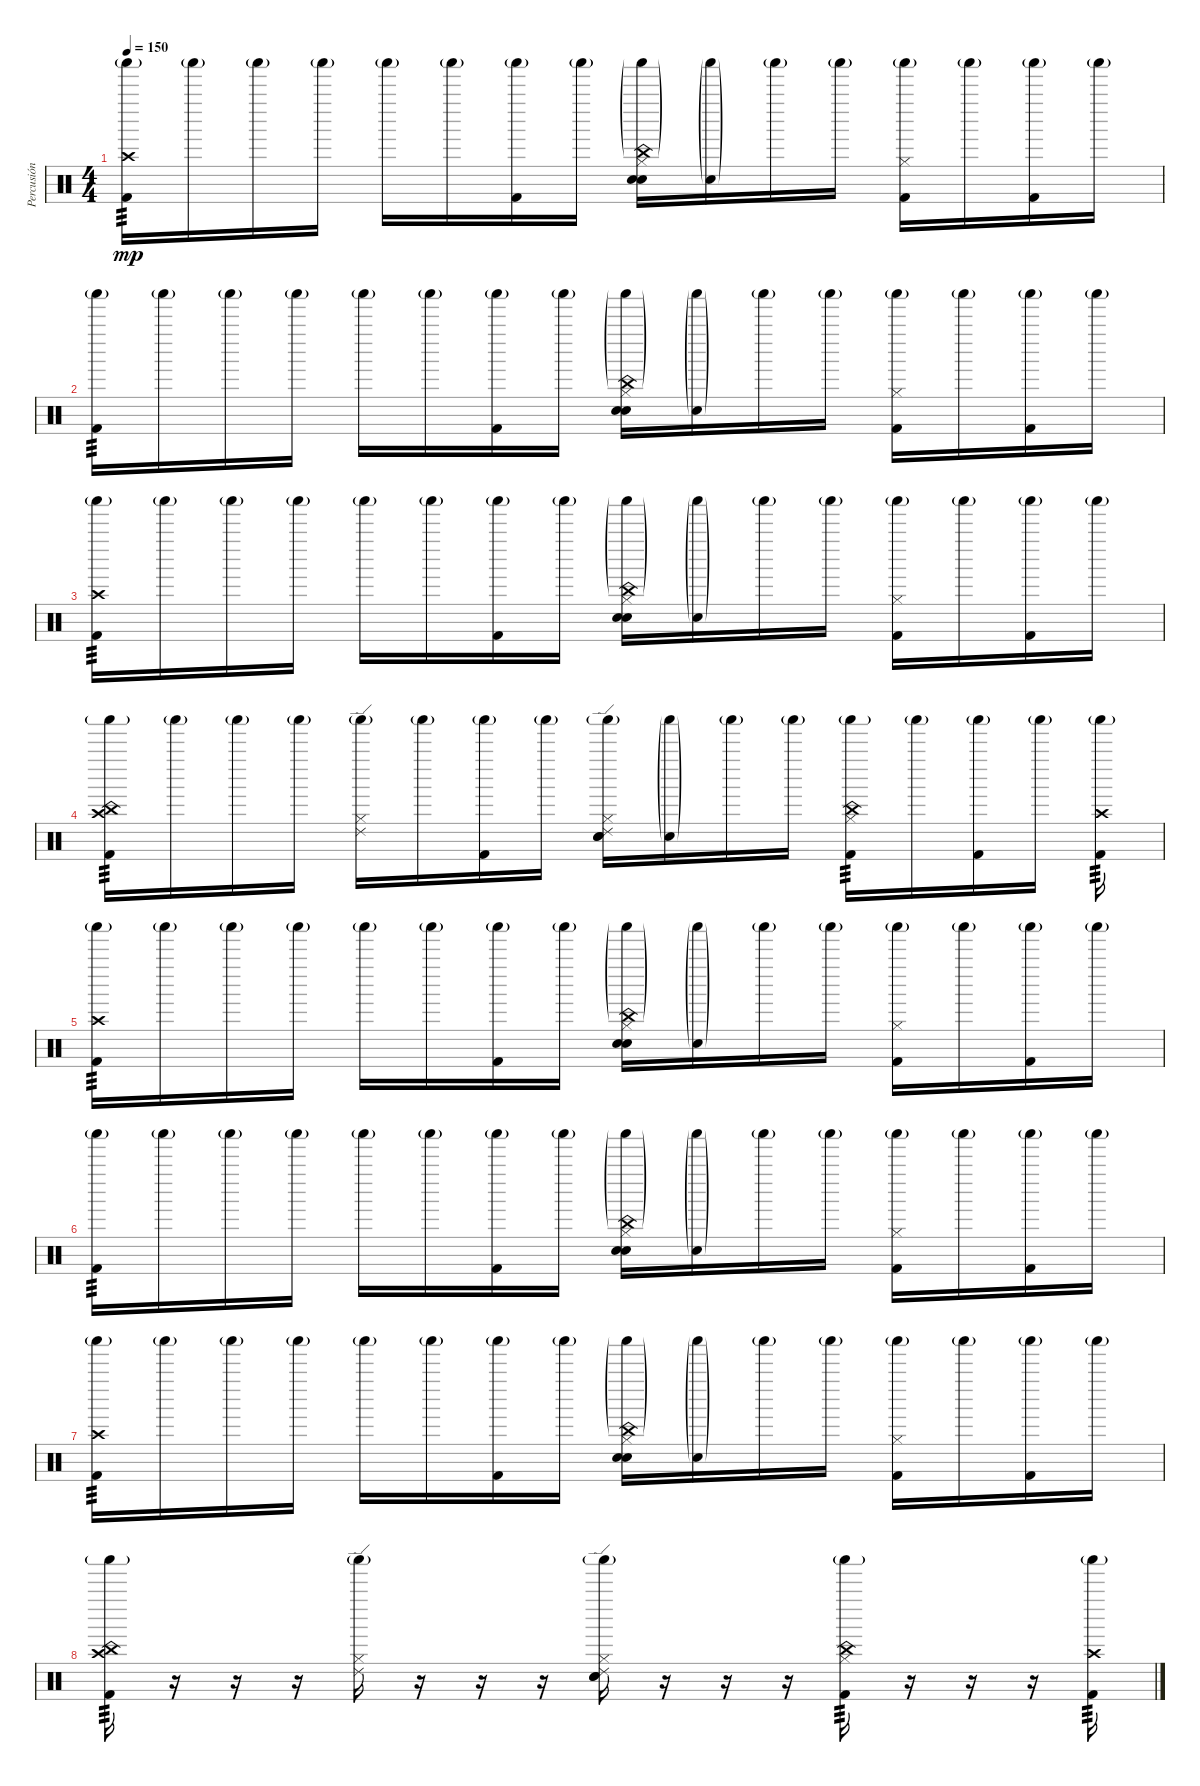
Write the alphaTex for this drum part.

\track ("Percusión" "Percusión") {instrument percussion}
\staff {score}
\articulation defaults
\ts (4 4)
\tempo 150
\clef neutral
\ks c
("Crash high (hit)" "Shaker (hit)"{g} "Kick (hit) 2").16{tp 3 dy mp} "Shaker (hit)"{g}.16 "Shaker (hit)"{g}.16 "Shaker (hit)"{g}.16 "Shaker (hit)"{g}.16 "Shaker (hit)"{g}.16 ("Shaker (hit)"{g} "Kick (hit) 2").16 "Shaker (hit)"{g}.16 ("China (hit)"{g} "Hand Clap (hit)" "Hi-Hat (closed)" "Shaker (hit)"{g} "Electric Snare (hit)").16 ("Hand Clap (hit)"{g} "Shaker (hit)"{g}).16 "Shaker (hit)"{g}.16 "Shaker (hit)"{g}.16 ("Hi-Hat (closed)" "Shaker (hit)"{g} "Kick (hit) 2").16 "Shaker (hit)"{g}.16 ("Shaker (hit)"{g} "Kick (hit) 2").16 "Shaker (hit)"{g}.16 |
("Shaker (hit)"{g} "Kick (hit) 2").16{tp 3} "Shaker (hit)"{g}.16 "Shaker (hit)"{g}.16 "Shaker (hit)"{g}.16 "Shaker (hit)"{g}.16 "Shaker (hit)"{g}.16 ("Shaker (hit)"{g} "Kick (hit) 2").16 "Shaker (hit)"{g}.16 ("China (hit)"{g} "Hand Clap (hit)" "Hi-Hat (closed)" "Shaker (hit)"{g} "Electric Snare (hit)").16 ("Hand Clap (hit)"{g} "Shaker (hit)"{g}).16 "Shaker (hit)"{g}.16 "Shaker (hit)"{g}.16 ("Hi-Hat (closed)" "Shaker (hit)"{g} "Kick (hit) 2").16 "Shaker (hit)"{g}.16 ("Shaker (hit)"{g} "Kick (hit) 2").16 "Shaker (hit)"{g}.16 |
("Crash high (hit)" "Shaker (hit)"{g} "Kick (hit) 2").16{tp 3} "Shaker (hit)"{g}.16 "Shaker (hit)"{g}.16 "Shaker (hit)"{g}.16 "Shaker (hit)"{g}.16 "Shaker (hit)"{g}.16 ("Shaker (hit)"{g} "Kick (hit) 2").16 "Shaker (hit)"{g}.16 ("China (hit)"{g} "Hand Clap (hit)" "Hi-Hat (closed)" "Shaker (hit)"{g} "Electric Snare (hit)").16 ("Hand Clap (hit)"{g} "Shaker (hit)"{g}).16 "Shaker (hit)"{g}.16 "Shaker (hit)"{g}.16 ("Hi-Hat (closed)" "Shaker (hit)"{g} "Kick (hit) 2").16 "Shaker (hit)"{g}.16 ("Shaker (hit)"{g} "Kick (hit) 2").16 "Shaker (hit)"{g}.16 |
("China (hit)" "Crash high (hit)" "Shaker (hit)"{g} "Kick (hit) 2").16{tp 3} "Shaker (hit)"{g}.16 "Shaker (hit)"{g}.16 "Shaker (hit)"{g}.16 ("Ride (edge) 2" "Hi-Hat (closed)" "Shaker (hit)"{g}).16 "Shaker (hit)"{g}.16 ("Shaker (hit)"{g} "Kick (hit) 2").16 "Shaker (hit)"{g}.16 ("Ride (edge) 2" "Hand Clap (hit)" "Hi-Hat (closed)" "Shaker (hit)"{g} "Electric Snare (hit)").16 ("Hand Clap (hit)"{g} "Shaker (hit)"{g}).16 "Shaker (hit)"{g}.16 "Shaker (hit)"{g}.16 ("China (hit)" "Hi-Hat (closed)" "Shaker (hit)"{g} "Kick (hit) 2").16{tp 3} "Shaker (hit)"{g}.16 ("Shaker (hit)"{g} "Kick (hit) 2").16 "Shaker (hit)"{g}.16 ("Crash high (hit)" "Shaker (hit)"{g} "Kick (hit) 2").16{tp 3} |
("Crash high (hit)" "Shaker (hit)"{g} "Kick (hit) 2").16{tp 3} "Shaker (hit)"{g}.16 "Shaker (hit)"{g}.16 "Shaker (hit)"{g}.16 "Shaker (hit)"{g}.16 "Shaker (hit)"{g}.16 ("Shaker (hit)"{g} "Kick (hit) 2").16 "Shaker (hit)"{g}.16 ("China (hit)"{g} "Hand Clap (hit)" "Hi-Hat (closed)" "Shaker (hit)"{g} "Electric Snare (hit)").16 ("Hand Clap (hit)"{g} "Shaker (hit)"{g}).16 "Shaker (hit)"{g}.16 "Shaker (hit)"{g}.16 ("Hi-Hat (closed)" "Shaker (hit)"{g} "Kick (hit) 2").16 "Shaker (hit)"{g}.16 ("Shaker (hit)"{g} "Kick (hit) 2").16 "Shaker (hit)"{g}.16 |
("Shaker (hit)"{g} "Kick (hit) 2").16{tp 3} "Shaker (hit)"{g}.16 "Shaker (hit)"{g}.16 "Shaker (hit)"{g}.16 "Shaker (hit)"{g}.16 "Shaker (hit)"{g}.16 ("Shaker (hit)"{g} "Kick (hit) 2").16 "Shaker (hit)"{g}.16 ("China (hit)"{g} "Hand Clap (hit)" "Hi-Hat (closed)" "Shaker (hit)"{g} "Electric Snare (hit)").16 ("Hand Clap (hit)"{g} "Shaker (hit)"{g}).16 "Shaker (hit)"{g}.16 "Shaker (hit)"{g}.16 ("Hi-Hat (closed)" "Shaker (hit)"{g} "Kick (hit) 2").16 "Shaker (hit)"{g}.16 ("Shaker (hit)"{g} "Kick (hit) 2").16 "Shaker (hit)"{g}.16 |
("Crash high (hit)" "Shaker (hit)"{g} "Kick (hit) 2").16{tp 3} "Shaker (hit)"{g}.16 "Shaker (hit)"{g}.16 "Shaker (hit)"{g}.16 "Shaker (hit)"{g}.16 "Shaker (hit)"{g}.16 ("Shaker (hit)"{g} "Kick (hit) 2").16 "Shaker (hit)"{g}.16 ("China (hit)"{g} "Hand Clap (hit)" "Hi-Hat (closed)" "Shaker (hit)"{g} "Electric Snare (hit)").16 ("Hand Clap (hit)"{g} "Shaker (hit)"{g}).16 "Shaker (hit)"{g}.16 "Shaker (hit)"{g}.16 ("Hi-Hat (closed)" "Shaker (hit)"{g} "Kick (hit) 2").16 "Shaker (hit)"{g}.16 ("Shaker (hit)"{g} "Kick (hit) 2").16 "Shaker (hit)"{g}.16 |
("China (hit)" "Crash high (hit)" "Shaker (hit)"{g} "Kick (hit) 2").16{tp 3} r.16 r.16 r.16 ("Ride (edge) 2" "Hi-Hat (closed)" "Shaker (hit)"{g}).16 r.16 r.16 r.16 ("Ride (edge) 2" "Hand Clap (hit)" "Hi-Hat (closed)" "Shaker (hit)"{g} "Electric Snare (hit)").16 r.16 r.16 r.16 ("China (hit)" "Hi-Hat (closed)" "Shaker (hit)"{g} "Kick (hit) 2").16{tp 3} r.16 r.16 r.16 ("Crash high (hit)" "Shaker (hit)"{g} "Kick (hit) 2").16{tp 3}
